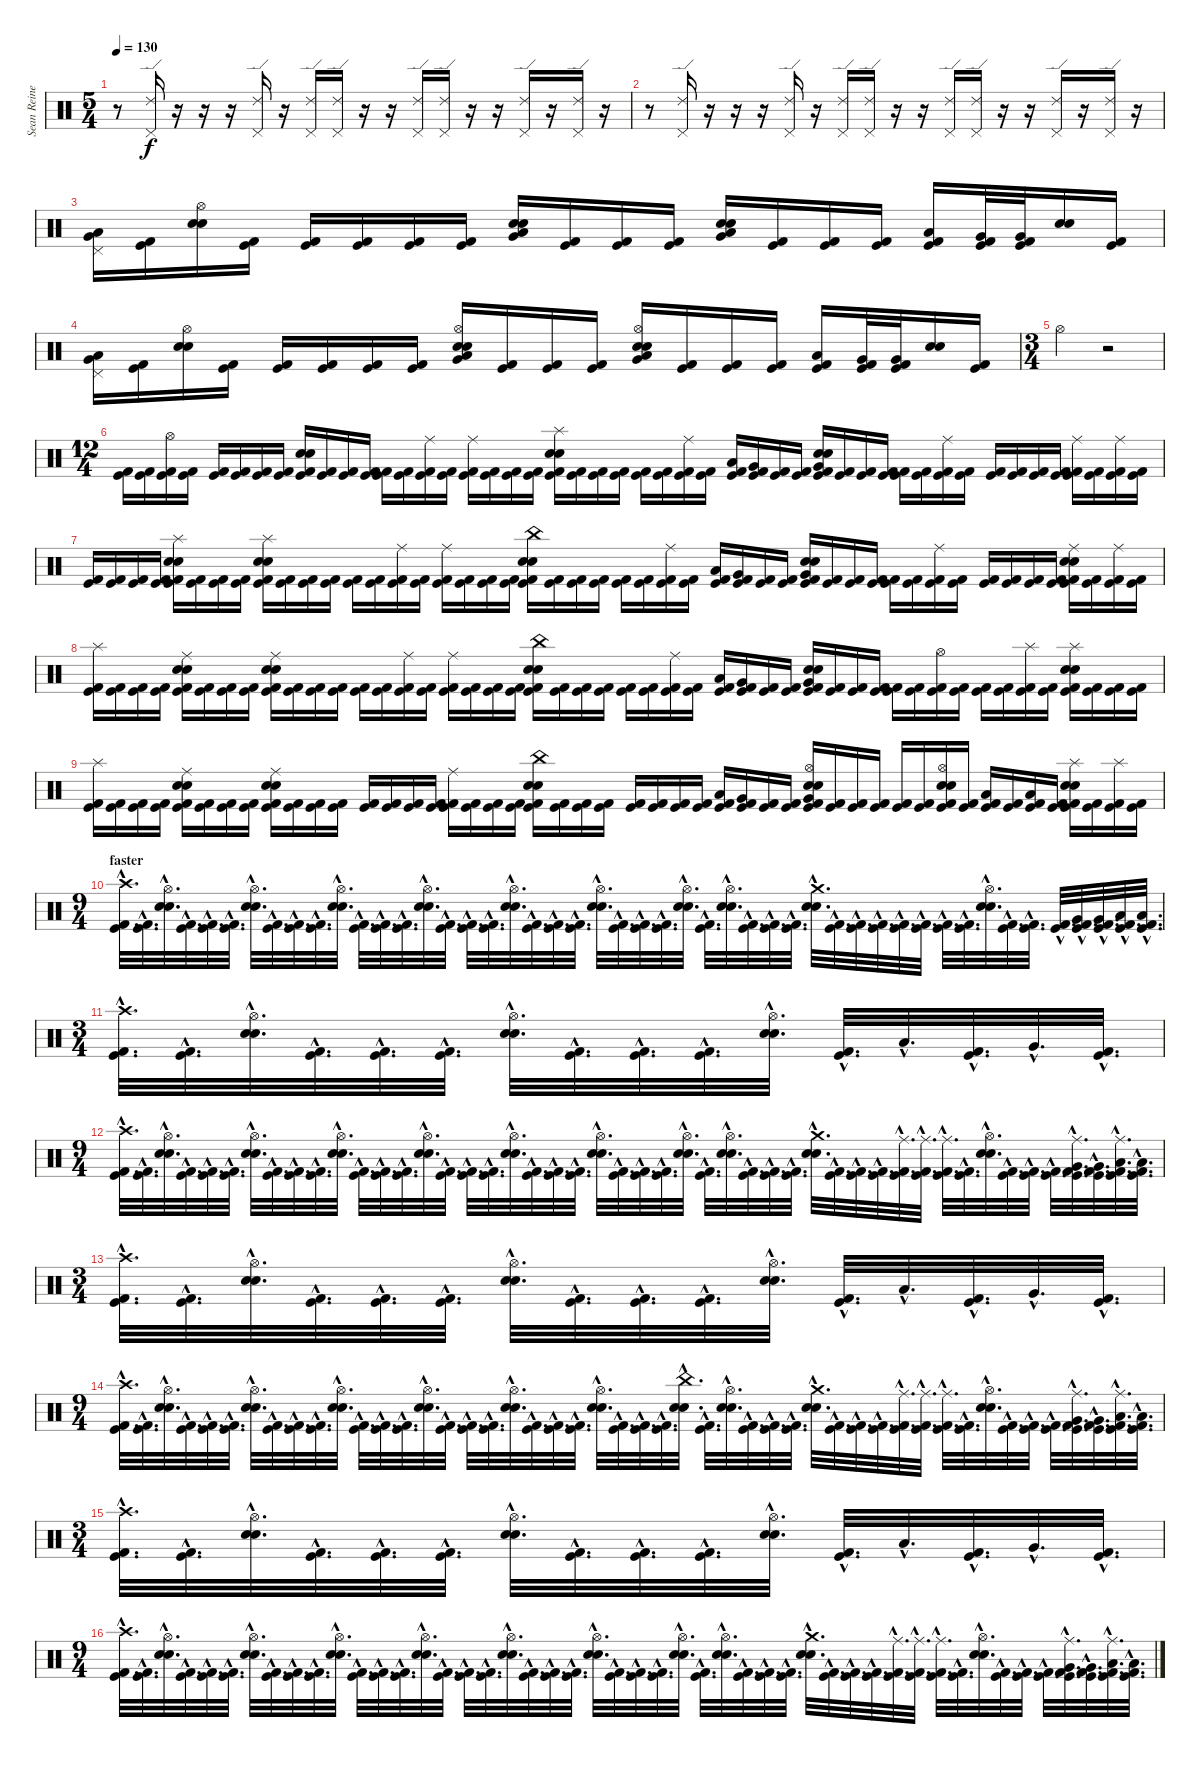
\track ("Sean Reinert" "Sean Reine") {instrument percussion}
\staff {score}
\articulation defaults
\ts (5 4)
\tempo 130
\clef neutral
\ks c
r.8{dy f} ("Ride (edge) 2" "Pedal Hi-Hat (hit)").16 r.16 r.16 r.16 ("Ride (edge) 2" "Pedal Hi-Hat (hit)").16 r.16 ("Ride (edge) 2" "Pedal Hi-Hat (hit)").16 ("Ride (edge) 2" "Pedal Hi-Hat (hit)").16 r.16 r.16 ("Ride (edge) 2" "Pedal Hi-Hat (hit)").16 ("Ride (edge) 2" "Pedal Hi-Hat (hit)").16 r.16 r.16 ("Ride (edge) 2" "Pedal Hi-Hat (hit)").16 r.16 ("Ride (edge) 2" "Pedal Hi-Hat (hit)").16 r.16 |
r.8 ("Ride (edge) 2" "Pedal Hi-Hat (hit)").16 r.16 r.16 r.16 ("Ride (edge) 2" "Pedal Hi-Hat (hit)").16 r.16 ("Ride (edge) 2" "Pedal Hi-Hat (hit)").16 ("Ride (edge) 2" "Pedal Hi-Hat (hit)").16 r.16 r.16 ("Ride (edge) 2" "Pedal Hi-Hat (hit)").16 ("Ride (edge) 2" "Pedal Hi-Hat (hit)").16 r.16 r.16 ("Ride (edge) 2" "Pedal Hi-Hat (hit)").16 r.16 ("Ride (edge) 2" "Pedal Hi-Hat (hit)").16 r.16 |
("Pedal Hi-Hat (hit)" "Low Tom (hit)" "Very Low Tom (hit)").16 ("Kick (hit)" "Kick (hit) 2").16 ("Hi-Hat (open)" "Electric Snare (hit)" "Snare (hit) 2").16 ("Kick (hit)" "Kick (hit) 2").16 ("Kick (hit)" "Kick (hit) 2").16 ("Kick (hit)" "Kick (hit) 2").16 ("Kick (hit)" "Kick (hit) 2").16 ("Kick (hit)" "Kick (hit) 2").16 ("Low Tom (hit)" "Very Low Tom (hit)" "Electric Snare (hit)" "Snare (hit) 2").16 ("Kick (hit)" "Kick (hit) 2").16 ("Kick (hit)" "Kick (hit) 2").16 ("Kick (hit)" "Kick (hit) 2").16 ("Low Tom (hit)" "Very Low Tom (hit)" "Electric Snare (hit)" "Snare (hit) 2").16 ("Kick (hit)" "Kick (hit) 2").16 ("Kick (hit)" "Kick (hit) 2").16 ("Kick (hit)" "Kick (hit) 2").16 ("Low Tom (hit)" "Kick (hit)" "Kick (hit) 2").16 ("Very Low Tom (hit)" "Kick (hit)" "Kick (hit) 2").32 ("Very Low Tom (hit)" "Kick (hit)" "Kick (hit) 2").32 ("Electric Snare (hit)" "Snare (hit) 2").16 ("Kick (hit)" "Kick (hit) 2").16 |
("Pedal Hi-Hat (hit)" "Low Tom (hit)" "Very Low Tom (hit)").16 ("Kick (hit)" "Kick (hit) 2").16 ("Hi-Hat (open)" "Electric Snare (hit)" "Snare (hit) 2").16 ("Kick (hit)" "Kick (hit) 2").16 ("Kick (hit)" "Kick (hit) 2").16 ("Kick (hit)" "Kick (hit) 2").16 ("Kick (hit)" "Kick (hit) 2").16 ("Kick (hit)" "Kick (hit) 2").16 ("Hi-Hat (open)" "Low Tom (hit)" "Very Low Tom (hit)" "Electric Snare (hit)" "Snare (hit) 2").16 ("Kick (hit)" "Kick (hit) 2").16 ("Kick (hit)" "Kick (hit) 2").16 ("Kick (hit)" "Kick (hit) 2").16 ("Hi-Hat (open)" "Low Tom (hit)" "Very Low Tom (hit)" "Electric Snare (hit)" "Snare (hit) 2").16 ("Kick (hit)" "Kick (hit) 2").16 ("Kick (hit)" "Kick (hit) 2").16 ("Kick (hit)" "Kick (hit) 2").16 ("Low Tom (hit)" "Kick (hit)" "Kick (hit) 2").16 ("Very Low Tom (hit)" "Kick (hit)" "Kick (hit) 2").32 ("Very Low Tom (hit)" "Kick (hit)" "Kick (hit) 2").32 ("Electric Snare (hit)" "Snare (hit) 2").16 ("Kick (hit)" "Kick (hit) 2").16 |
\ts (3 4)
"Hi-Hat (open)".4 r.2 |
\ts (12 4)
("Kick (hit) 2" "Kick (hit)").16 ("Kick (hit) 2" "Kick (hit)").16 ("Hi-Hat (open)" "Kick (hit) 2" "Kick (hit)").16 ("Kick (hit) 2" "Kick (hit)").16 ("Kick (hit) 2" "Kick (hit)").16 ("Kick (hit) 2" "Kick (hit)").16 ("Kick (hit) 2" "Kick (hit)").16 ("Kick (hit) 2" "Kick (hit)").16 ("Snare (hit) 2" "Electric Snare (hit)" "Kick (hit) 2" "Kick (hit)").16 ("Kick (hit) 2" "Kick (hit)").16 ("Kick (hit) 2" "Kick (hit)").16 ("Kick (hit) 2" "Kick (hit)").16 ("Kick (hit) 2" "Kick (hit)").16 ("Kick (hit) 2" "Kick (hit)").16 ("Ride (middle)" "Kick (hit) 2" "Kick (hit)").16 ("Kick (hit) 2" "Kick (hit)").16 ("Ride (middle)" "Kick (hit) 2" "Kick (hit)").16 ("Kick (hit) 2" "Kick (hit)").16 ("Kick (hit) 2" "Kick (hit)").16 ("Kick (hit) 2" "Kick (hit)").16 ("Splash (hit)" "Snare (hit) 2" "Electric Snare (hit)" "Kick (hit) 2" "Kick (hit)").16 ("Kick (hit) 2" "Kick (hit)").16 ("Kick (hit) 2" "Kick (hit)").16 ("Kick (hit) 2" "Kick (hit)").16 ("Kick (hit) 2" "Kick (hit)").16 ("Kick (hit) 2" "Kick (hit)").16 ("Ride (middle)" "Kick (hit) 2" "Kick (hit)").16 ("Kick (hit) 2" "Kick (hit)").16 ("Low Tom (hit)" "Kick (hit) 2" "Kick (hit)").16 ("Very Low Tom (hit)" "Kick (hit) 2" "Kick (hit)").16 ("Kick (hit) 2" "Kick (hit)").16 ("Kick (hit) 2" "Kick (hit)").16 ("Very Low Tom (hit)" "Snare (hit) 2" "Electric Snare (hit)" "Kick (hit) 2" "Kick (hit)").16 ("Kick (hit) 2" "Kick (hit)").16 ("Kick (hit) 2" "Kick (hit)").16 ("Kick (hit) 2" "Kick (hit)").16 ("Kick (hit) 2" "Kick (hit)").16 ("Kick (hit) 2" "Kick (hit)").16 ("Ride (middle)" "Kick (hit) 2" "Kick (hit)").16 ("Kick (hit) 2" "Kick (hit)").16 ("Kick (hit) 2" "Kick (hit)").16 ("Kick (hit) 2" "Kick (hit)").16 ("Kick (hit) 2" "Kick (hit)").16 ("Kick (hit) 2" "Kick (hit)").16 ("Ride (middle)" "Kick (hit) 2" "Kick (hit)").16 ("Kick (hit) 2" "Kick (hit)").16 ("Ride (middle)" "Kick (hit) 2" "Kick (hit)").16 ("Kick (hit) 2" "Kick (hit)").16 |
("Kick (hit) 2" "Kick (hit)").16 ("Kick (hit) 2" "Kick (hit)").16 ("Kick (hit) 2" "Kick (hit)").16 ("Kick (hit) 2" "Kick (hit)").16 ("Splash (hit)" "Snare (hit) 2" "Electric Snare (hit)" "Kick (hit) 2" "Kick (hit)").16 ("Kick (hit) 2" "Kick (hit)").16 ("Kick (hit) 2" "Kick (hit)").16 ("Kick (hit) 2" "Kick (hit)").16 ("Splash (hit)" "Snare (hit) 2" "Electric Snare (hit)" "Kick (hit) 2" "Kick (hit)").16 ("Kick (hit) 2" "Kick (hit)").16 ("Kick (hit) 2" "Kick (hit)").16 ("Kick (hit) 2" "Kick (hit)").16 ("Kick (hit) 2" "Kick (hit)").16 ("Kick (hit) 2" "Kick (hit)").16 ("Ride (middle)" "Kick (hit) 2" "Kick (hit)").16 ("Kick (hit) 2" "Kick (hit)").16 ("Ride (middle)" "Kick (hit) 2" "Kick (hit)").16 ("Kick (hit) 2" "Kick (hit)").16 ("Kick (hit) 2" "Kick (hit)").16 ("Kick (hit) 2" "Kick (hit)").16 ("China (hit)" "Snare (hit) 2" "Electric Snare (hit)" "Kick (hit) 2" "Kick (hit)").16 ("Kick (hit) 2" "Kick (hit)").16 ("Kick (hit) 2" "Kick (hit)").16 ("Kick (hit) 2" "Kick (hit)").16 ("Kick (hit) 2" "Kick (hit)").16 ("Kick (hit) 2" "Kick (hit)").16 ("Ride (middle)" "Kick (hit) 2" "Kick (hit)").16 ("Kick (hit) 2" "Kick (hit)").16 ("Low Tom (hit)" "Kick (hit) 2" "Kick (hit)").16 ("Very Low Tom (hit)" "Kick (hit) 2" "Kick (hit)").16 ("Kick (hit) 2" "Kick (hit)").16 ("Kick (hit) 2" "Kick (hit)").16 ("Very Low Tom (hit)" "Snare (hit) 2" "Electric Snare (hit)" "Kick (hit) 2" "Kick (hit)").16 ("Kick (hit) 2" "Kick (hit)").16 ("Kick (hit) 2" "Kick (hit)").16 ("Kick (hit) 2" "Kick (hit)").16 ("Kick (hit) 2" "Kick (hit)").16 ("Kick (hit) 2" "Kick (hit)").16 ("Ride (middle)" "Kick (hit) 2" "Kick (hit)").16 ("Kick (hit) 2" "Kick (hit)").16 ("Kick (hit) 2" "Kick (hit)").16 ("Kick (hit) 2" "Kick (hit)").16 ("Kick (hit) 2" "Kick (hit)").16 ("Kick (hit) 2" "Kick (hit)").16 ("Ride (middle)" "Electric Snare (hit)" "Snare (hit) 2" "Kick (hit) 2" "Kick (hit)").16 ("Kick (hit) 2" "Kick (hit)").16 ("Ride (middle)" "Kick (hit) 2" "Kick (hit)").16 ("Kick (hit) 2" "Kick (hit)").16 |
("Splash (hit)" "Kick (hit) 2" "Kick (hit)").16 ("Kick (hit) 2" "Kick (hit)").16 ("Kick (hit) 2" "Kick (hit)").16 ("Kick (hit) 2" "Kick (hit)").16 ("Ride (middle)" "Snare (hit) 2" "Electric Snare (hit)" "Kick (hit) 2" "Kick (hit)").16 ("Kick (hit) 2" "Kick (hit)").16 ("Kick (hit) 2" "Kick (hit)").16 ("Kick (hit) 2" "Kick (hit)").16 ("Ride (middle)" "Snare (hit) 2" "Electric Snare (hit)" "Kick (hit) 2" "Kick (hit)").16 ("Kick (hit) 2" "Kick (hit)").16 ("Kick (hit) 2" "Kick (hit)").16 ("Kick (hit) 2" "Kick (hit)").16 ("Kick (hit) 2" "Kick (hit)").16 ("Kick (hit) 2" "Kick (hit)").16 ("Ride (middle)" "Kick (hit) 2" "Kick (hit)").16 ("Kick (hit) 2" "Kick (hit)").16 ("Ride (middle)" "Kick (hit) 2" "Kick (hit)").16 ("Kick (hit) 2" "Kick (hit)").16 ("Kick (hit) 2" "Kick (hit)").16 ("Kick (hit) 2" "Kick (hit)").16 ("China (hit)" "Snare (hit) 2" "Electric Snare (hit)" "Kick (hit) 2" "Kick (hit)").16 ("Kick (hit) 2" "Kick (hit)").16 ("Kick (hit) 2" "Kick (hit)").16 ("Kick (hit) 2" "Kick (hit)").16 ("Kick (hit) 2" "Kick (hit)").16 ("Kick (hit) 2" "Kick (hit)").16 ("Ride (middle)" "Kick (hit) 2" "Kick (hit)").16 ("Kick (hit) 2" "Kick (hit)").16 ("Low Tom (hit)" "Kick (hit) 2" "Kick (hit)").16 ("Very Low Tom (hit)" "Kick (hit) 2" "Kick (hit)").16 ("Kick (hit) 2" "Kick (hit)").16 ("Kick (hit) 2" "Kick (hit)").16 ("Very Low Tom (hit)" "Snare (hit) 2" "Electric Snare (hit)" "Kick (hit) 2" "Kick (hit)").16 ("Kick (hit) 2" "Kick (hit)").16 ("Kick (hit) 2" "Kick (hit)").16 ("Kick (hit) 2" "Kick (hit)").16 ("Kick (hit) 2" "Kick (hit)").16 ("Kick (hit) 2" "Kick (hit)").16 ("Hi-Hat (open)" "Kick (hit) 2" "Kick (hit)").16 ("Kick (hit) 2" "Kick (hit)").16 ("Kick (hit) 2" "Kick (hit)").16 ("Kick (hit) 2" "Kick (hit)").16 ("Splash (hit)" "Kick (hit) 2" "Kick (hit)").16 ("Kick (hit) 2" "Kick (hit)").16 ("Splash (hit)" "Electric Snare (hit)" "Snare (hit) 2" "Kick (hit) 2" "Kick (hit)").16 ("Kick (hit) 2" "Kick (hit)").16 ("Kick (hit) 2" "Kick (hit)").16 ("Kick (hit) 2" "Kick (hit)").16 |
("Splash (hit)" "Kick (hit) 2" "Kick (hit)").16 ("Kick (hit) 2" "Kick (hit)").16 ("Kick (hit) 2" "Kick (hit)").16 ("Kick (hit) 2" "Kick (hit)").16 ("Ride (middle)" "Snare (hit) 2" "Electric Snare (hit)" "Kick (hit) 2" "Kick (hit)").16 ("Kick (hit) 2" "Kick (hit)").16 ("Kick (hit) 2" "Kick (hit)").16 ("Kick (hit) 2" "Kick (hit)").16 ("Ride (middle)" "Snare (hit) 2" "Electric Snare (hit)" "Kick (hit) 2" "Kick (hit)").16 ("Kick (hit) 2" "Kick (hit)").16 ("Kick (hit) 2" "Kick (hit)").16 ("Kick (hit) 2" "Kick (hit)").16 ("Kick (hit) 2" "Kick (hit)").16 ("Kick (hit) 2" "Kick (hit)").16 ("Kick (hit) 2" "Kick (hit)").16 ("Kick (hit) 2" "Kick (hit)").16 ("Ride (middle)" "Kick (hit) 2" "Kick (hit)").16 ("Kick (hit) 2" "Kick (hit)").16 ("Kick (hit) 2" "Kick (hit)").16 ("Kick (hit) 2" "Kick (hit)").16 ("China (hit)" "Snare (hit) 2" "Electric Snare (hit)" "Kick (hit) 2" "Kick (hit)").16 ("Kick (hit) 2" "Kick (hit)").16 ("Kick (hit) 2" "Kick (hit)").16 ("Kick (hit) 2" "Kick (hit)").16 ("Kick (hit) 2" "Kick (hit)").16 ("Kick (hit) 2" "Kick (hit)").16 ("Kick (hit) 2" "Kick (hit)").16 ("Kick (hit) 2" "Kick (hit)").16 ("Low Tom (hit)" "Kick (hit) 2" "Kick (hit)").16 ("Very Low Tom (hit)" "Kick (hit) 2" "Kick (hit)").16 ("Kick (hit) 2" "Kick (hit)").16 ("Kick (hit) 2" "Kick (hit)").16 ("Hi-Hat (open)" "Very Low Tom (hit)" "Snare (hit) 2" "Electric Snare (hit)" "Kick (hit) 2" "Kick (hit)").16 ("Kick (hit) 2" "Kick (hit)").16 ("Kick (hit) 2" "Kick (hit)").16 ("Kick (hit) 2" "Kick (hit)").16 ("Kick (hit) 2" "Kick (hit)").16 ("Kick (hit) 2" "Kick (hit)").16 ("Hi-Hat (open)" "Electric Snare (hit)" "Snare (hit) 2" "Kick (hit) 2" "Kick (hit)").16 ("Kick (hit) 2" "Kick (hit)").16 ("Low Tom (hit)" "Kick (hit) 2" "Kick (hit)").16 ("Kick (hit) 2" "Kick (hit)").16 ("Low Tom (hit)" "Kick (hit) 2" "Kick (hit)").16 ("Kick (hit) 2" "Kick (hit)").16 ("Splash (hit)" "Electric Snare (hit)" "Snare (hit) 2" "Kick (hit) 2" "Kick (hit)").16 ("Kick (hit) 2" "Kick (hit)").16 ("Splash (hit)" "Kick (hit) 2" "Kick (hit)").16 ("Kick (hit) 2" "Kick (hit)").16 |
\ts (9 4)
\section ("" "faster")
("Crash high (hit)"{hac} "Kick (hit) 2"{hac} "Kick (hit)"{hac}).32{d} ("Kick (hit) 2"{hac} "Kick (hit)"{hac}).32{d} ("Hi-Hat (open)"{hac} "Electric Snare (hit)"{hac} "Snare (hit) 2"{hac}).32{d} ("Kick (hit) 2"{hac} "Kick (hit)"{hac}).32{d} ("Kick (hit) 2"{hac} "Kick (hit)"{hac}).32{d} ("Kick (hit) 2"{hac} "Kick (hit)"{hac}).32{d} ("Hi-Hat (open)"{hac} "Electric Snare (hit)"{hac} "Snare (hit) 2"{hac}).32{d} ("Kick (hit) 2"{hac} "Kick (hit)"{hac}).32{d} ("Kick (hit) 2"{hac} "Kick (hit)"{hac}).32{d} ("Kick (hit) 2"{hac} "Kick (hit)"{hac}).32{d} ("Hi-Hat (open)"{hac} "Electric Snare (hit)"{hac} "Snare (hit) 2"{hac}).32{d} ("Kick (hit) 2"{hac} "Kick (hit)"{hac}).32{d} ("Kick (hit) 2"{hac} "Kick (hit)"{hac}).32{d} ("Kick (hit) 2"{hac} "Kick (hit)"{hac}).32{d} ("Hi-Hat (open)"{hac} "Electric Snare (hit)"{hac} "Snare (hit) 2"{hac}).32{d} ("Kick (hit) 2"{hac} "Kick (hit)"{hac}).32{d} ("Kick (hit) 2"{hac} "Kick (hit)"{hac}).32{d} ("Kick (hit) 2"{hac} "Kick (hit)"{hac}).32{d} ("Hi-Hat (open)"{hac} "Electric Snare (hit)"{hac} "Snare (hit) 2"{hac}).32{d} ("Kick (hit) 2"{hac} "Kick (hit)"{hac}).32{d} ("Kick (hit) 2"{hac} "Kick (hit)"{hac}).32{d} ("Kick (hit) 2"{hac} "Kick (hit)"{hac}).32{d} ("Hi-Hat (open)"{hac} "Electric Snare (hit)"{hac} "Snare (hit) 2"{hac}).32{d} ("Kick (hit) 2"{hac} "Kick (hit)"{hac}).32{d} ("Kick (hit) 2"{hac} "Kick (hit)"{hac}).32{d} ("Kick (hit) 2"{hac} "Kick (hit)"{hac}).32{d} ("Hi-Hat (open)"{hac} "Electric Snare (hit)"{hac} "Snare (hit) 2"{hac}).32{d} ("Kick (hit) 2"{hac} "Kick (hit)"{hac}).32{d} ("Hi-Hat (open)"{hac} "Electric Snare (hit)"{hac} "Snare (hit) 2"{hac}).32{d} ("Kick (hit) 2"{hac} "Kick (hit)"{hac}).32{d} ("Kick (hit) 2"{hac} "Kick (hit)"{hac}).32{d} ("Kick (hit) 2"{hac} "Kick (hit)"{hac}).32{d} ("Crash medium (hit)"{hac} "Electric Snare (hit)"{hac} "Snare (hit) 2"{hac}).32{d} ("Kick (hit) 2"{hac} "Kick (hit)"{hac}).32{d} ("Kick (hit) 2"{hac} "Kick (hit)"{hac}).32{d} ("Kick (hit) 2"{hac} "Kick (hit)"{hac}).32{d} ("Kick (hit) 2"{hac} "Kick (hit)"{hac}).32{d} ("Kick (hit) 2"{hac} "Kick (hit)"{hac}).32{d} ("Kick (hit) 2"{hac} "Kick (hit)"{hac}).32{d} ("Kick (hit) 2"{hac} "Kick (hit)"{hac}).32{d} ("Hi-Hat (open)"{hac} "Electric Snare (hit)"{hac} "Snare (hit) 2"{hac}).32{d} ("Kick (hit) 2"{hac} "Kick (hit)"{hac}).32{d} ("Kick (hit) 2"{hac} "Kick (hit)"{hac}).32{d} ("Kick (hit) 2"{hac} "Kick (hit)"{hac}).32{d} ("Very Low Tom (hit)"{hac} "Kick (hit) 2"{hac} "Kick (hit)"{hac}).32{d} ("Very Low Tom (hit)"{hac} "Kick (hit) 2"{hac} "Kick (hit)"{hac}).32{d} ("Low Floor Tom (hit)"{hac} "Kick (hit) 2"{hac} "Kick (hit)"{hac}).32{d} ("Low Floor Tom (hit)"{hac} "Kick (hit) 2"{hac} "Kick (hit)"{hac}).32{d} |
\ts (3 4)
("Crash high (hit)"{hac} "Kick (hit) 2"{hac} "Kick (hit)"{hac}).32{d} ("Kick (hit) 2"{hac} "Kick (hit)"{hac}).32{d} ("Hi-Hat (open)"{hac} "Electric Snare (hit)"{hac} "Snare (hit) 2"{hac}).32{d} ("Kick (hit) 2"{hac} "Kick (hit)"{hac}).32{d} ("Kick (hit) 2"{hac} "Kick (hit)"{hac}).32{d} ("Kick (hit) 2"{hac} "Kick (hit)"{hac}).32{d} ("Hi-Hat (open)"{hac} "Electric Snare (hit)"{hac} "Snare (hit) 2"{hac}).32{d} ("Kick (hit) 2"{hac} "Kick (hit)"{hac}).32{d} ("Kick (hit) 2"{hac} "Kick (hit)"{hac}).32{d} ("Kick (hit) 2"{hac} "Kick (hit)"{hac}).32{d} ("Hi-Hat (open)"{hac} "Electric Snare (hit)"{hac} "Snare (hit) 2"{hac}).32{d} ("Kick (hit) 2"{hac} "Kick (hit)"{hac}).32{d} "Low Tom (hit)"{hac}.32{d} ("Kick (hit) 2"{hac} "Kick (hit)"{hac}).32{d} "Very Low Tom (hit)"{hac}.32{d} ("Kick (hit) 2"{hac} "Kick (hit)"{hac}).32{d} |
\ts (9 4)
("Crash high (hit)"{hac} "Kick (hit) 2"{hac} "Kick (hit)"{hac}).32{d} ("Kick (hit) 2"{hac} "Kick (hit)"{hac}).32{d} ("Hi-Hat (open)"{hac} "Electric Snare (hit)"{hac} "Snare (hit) 2"{hac}).32{d} ("Kick (hit) 2"{hac} "Kick (hit)"{hac}).32{d} ("Kick (hit) 2"{hac} "Kick (hit)"{hac}).32{d} ("Kick (hit) 2"{hac} "Kick (hit)"{hac}).32{d} ("Hi-Hat (open)"{hac} "Electric Snare (hit)"{hac} "Snare (hit) 2"{hac}).32{d} ("Kick (hit) 2"{hac} "Kick (hit)"{hac}).32{d} ("Kick (hit) 2"{hac} "Kick (hit)"{hac}).32{d} ("Kick (hit) 2"{hac} "Kick (hit)"{hac}).32{d} ("Hi-Hat (open)"{hac} "Electric Snare (hit)"{hac} "Snare (hit) 2"{hac}).32{d} ("Kick (hit) 2"{hac} "Kick (hit)"{hac}).32{d} ("Kick (hit) 2"{hac} "Kick (hit)"{hac}).32{d} ("Kick (hit) 2"{hac} "Kick (hit)"{hac}).32{d} ("Hi-Hat (open)"{hac} "Electric Snare (hit)"{hac} "Snare (hit) 2"{hac}).32{d} ("Kick (hit) 2"{hac} "Kick (hit)"{hac}).32{d} ("Kick (hit) 2"{hac} "Kick (hit)"{hac}).32{d} ("Kick (hit) 2"{hac} "Kick (hit)"{hac}).32{d} ("Hi-Hat (open)"{hac} "Electric Snare (hit)"{hac} "Snare (hit) 2"{hac}).32{d} ("Kick (hit) 2"{hac} "Kick (hit)"{hac}).32{d} ("Kick (hit) 2"{hac} "Kick (hit)"{hac}).32{d} ("Kick (hit) 2"{hac} "Kick (hit)"{hac}).32{d} ("Hi-Hat (open)"{hac} "Electric Snare (hit)"{hac} "Snare (hit) 2"{hac}).32{d} ("Kick (hit) 2"{hac} "Kick (hit)"{hac}).32{d} ("Kick (hit) 2"{hac} "Kick (hit)"{hac}).32{d} ("Kick (hit) 2"{hac} "Kick (hit)"{hac}).32{d} ("Hi-Hat (open)"{hac} "Electric Snare (hit)"{hac} "Snare (hit) 2"{hac}).32{d} ("Kick (hit) 2"{hac} "Kick (hit)"{hac}).32{d} ("Hi-Hat (open)"{hac} "Electric Snare (hit)"{hac} "Snare (hit) 2"{hac}).32{d} ("Kick (hit) 2"{hac} "Kick (hit)"{hac}).32{d} ("Kick (hit) 2"{hac} "Kick (hit)"{hac}).32{d} ("Kick (hit) 2"{hac} "Kick (hit)"{hac}).32{d} ("Crash medium (hit)"{hac} "Electric Snare (hit)"{hac} "Snare (hit) 2"{hac}).32{d} ("Kick (hit) 2"{hac} "Kick (hit)"{hac}).32{d} ("Kick (hit) 2"{hac} "Kick (hit)"{hac}).32{d} ("Kick (hit) 2"{hac} "Kick (hit)"{hac}).32{d} ("Ride (middle)"{hac} "Kick (hit) 2"{hac} "Kick (hit)"{hac}).32{d} ("Ride (middle)"{hac} "Kick (hit) 2"{hac} "Kick (hit)"{hac}).32{d} ("Ride (middle)"{hac} "Kick (hit) 2"{hac} "Kick (hit)"{hac}).32{d} ("Kick (hit) 2"{hac} "Kick (hit)"{hac}).32{d} ("Hi-Hat (open)"{hac} "Electric Snare (hit)"{hac} "Snare (hit) 2"{hac}).32{d} ("Kick (hit) 2"{hac} "Kick (hit)"{hac}).32{d} ("Kick (hit) 2"{hac} "Kick (hit)"{hac}).32{d} ("Kick (hit) 2"{hac} "Kick (hit)"{hac}).32{d} ("Ride (middle)"{hac} "Very Low Tom (hit)"{hac} "Kick (hit) 2"{hac} "Kick (hit)"{hac}).32{d} ("Very Low Tom (hit)"{hac} "Kick (hit) 2"{hac} "Kick (hit)"{hac}).32{d} ("Ride (middle)"{hac} "Low Floor Tom (hit)"{hac} "Kick (hit) 2"{hac} "Kick (hit)"{hac}).32{d} ("Low Floor Tom (hit)"{hac} "Kick (hit) 2"{hac} "Kick (hit)"{hac}).32{d} |
\ts (3 4)
("Crash high (hit)"{hac} "Kick (hit) 2"{hac} "Kick (hit)"{hac}).32{d} ("Kick (hit) 2"{hac} "Kick (hit)"{hac}).32{d} ("Hi-Hat (open)"{hac} "Electric Snare (hit)"{hac} "Snare (hit) 2"{hac}).32{d} ("Kick (hit) 2"{hac} "Kick (hit)"{hac}).32{d} ("Kick (hit) 2"{hac} "Kick (hit)"{hac}).32{d} ("Kick (hit) 2"{hac} "Kick (hit)"{hac}).32{d} ("Hi-Hat (open)"{hac} "Electric Snare (hit)"{hac} "Snare (hit) 2"{hac}).32{d} ("Kick (hit) 2"{hac} "Kick (hit)"{hac}).32{d} ("Kick (hit) 2"{hac} "Kick (hit)"{hac}).32{d} ("Kick (hit) 2"{hac} "Kick (hit)"{hac}).32{d} ("Hi-Hat (open)"{hac} "Electric Snare (hit)"{hac} "Snare (hit) 2"{hac}).32{d} ("Kick (hit) 2"{hac} "Kick (hit)"{hac}).32{d} "Low Tom (hit)"{hac}.32{d} ("Kick (hit) 2"{hac} "Kick (hit)"{hac}).32{d} "Very Low Tom (hit)"{hac}.32{d} ("Kick (hit) 2"{hac} "Kick (hit)"{hac}).32{d} |
\ts (9 4)
("Crash high (hit)"{hac} "Kick (hit) 2"{hac} "Kick (hit)"{hac}).32{d} ("Kick (hit) 2"{hac} "Kick (hit)"{hac}).32{d} ("Hi-Hat (open)"{hac} "Electric Snare (hit)"{hac} "Snare (hit) 2"{hac}).32{d} ("Kick (hit) 2"{hac} "Kick (hit)"{hac}).32{d} ("Kick (hit) 2"{hac} "Kick (hit)"{hac}).32{d} ("Kick (hit) 2"{hac} "Kick (hit)"{hac}).32{d} ("Hi-Hat (open)"{hac} "Electric Snare (hit)"{hac} "Snare (hit) 2"{hac}).32{d} ("Kick (hit) 2"{hac} "Kick (hit)"{hac}).32{d} ("Kick (hit) 2"{hac} "Kick (hit)"{hac}).32{d} ("Kick (hit) 2"{hac} "Kick (hit)"{hac}).32{d} ("Hi-Hat (open)"{hac} "Electric Snare (hit)"{hac} "Snare (hit) 2"{hac}).32{d} ("Kick (hit) 2"{hac} "Kick (hit)"{hac}).32{d} ("Kick (hit) 2"{hac} "Kick (hit)"{hac}).32{d} ("Kick (hit) 2"{hac} "Kick (hit)"{hac}).32{d} ("Hi-Hat (open)"{hac} "Electric Snare (hit)"{hac} "Snare (hit) 2"{hac}).32{d} ("Kick (hit) 2"{hac} "Kick (hit)"{hac}).32{d} ("Kick (hit) 2"{hac} "Kick (hit)"{hac}).32{d} ("Kick (hit) 2"{hac} "Kick (hit)"{hac}).32{d} ("Hi-Hat (open)"{hac} "Electric Snare (hit)"{hac} "Snare (hit) 2"{hac}).32{d} ("Kick (hit) 2"{hac} "Kick (hit)"{hac}).32{d} ("Kick (hit) 2"{hac} "Kick (hit)"{hac}).32{d} ("Kick (hit) 2"{hac} "Kick (hit)"{hac}).32{d} ("Hi-Hat (open)"{hac} "Electric Snare (hit)"{hac} "Snare (hit) 2"{hac}).32{d} ("Kick (hit) 2"{hac} "Kick (hit)"{hac}).32{d} ("Kick (hit) 2"{hac} "Kick (hit)"{hac}).32{d} ("Kick (hit) 2"{hac} "Kick (hit)"{hac}).32{d} ("China (hit)"{hac} "Electric Snare (hit)"{hac} "Snare (hit) 2"{hac}).32{d} ("Kick (hit) 2"{hac} "Kick (hit)"{hac}).32{d} ("Hi-Hat (open)"{hac} "Electric Snare (hit)"{hac} "Snare (hit) 2"{hac}).32{d} ("Kick (hit) 2"{hac} "Kick (hit)"{hac}).32{d} ("Kick (hit) 2"{hac} "Kick (hit)"{hac}).32{d} ("Kick (hit) 2"{hac} "Kick (hit)"{hac}).32{d} ("Crash medium (hit)"{hac} "Electric Snare (hit)"{hac} "Snare (hit) 2"{hac}).32{d} ("Kick (hit) 2"{hac} "Kick (hit)"{hac}).32{d} ("Kick (hit) 2"{hac} "Kick (hit)"{hac}).32{d} ("Kick (hit) 2"{hac} "Kick (hit)"{hac}).32{d} ("Ride (middle)"{hac} "Kick (hit) 2"{hac} "Kick (hit)"{hac}).32{d} ("Ride (middle)"{hac} "Kick (hit) 2"{hac} "Kick (hit)"{hac}).32{d} ("Ride (middle)"{hac} "Kick (hit) 2"{hac} "Kick (hit)"{hac}).32{d} ("Kick (hit) 2"{hac} "Kick (hit)"{hac}).32{d} ("Hi-Hat (open)"{hac} "Electric Snare (hit)"{hac} "Snare (hit) 2"{hac}).32{d} ("Kick (hit) 2"{hac} "Kick (hit)"{hac}).32{d} ("Kick (hit) 2"{hac} "Kick (hit)"{hac}).32{d} ("Kick (hit) 2"{hac} "Kick (hit)"{hac}).32{d} ("Ride (middle)"{hac} "Very Low Tom (hit)"{hac} "Kick (hit) 2"{hac} "Kick (hit)"{hac}).32{d} ("Very Low Tom (hit)"{hac} "Kick (hit) 2"{hac} "Kick (hit)"{hac}).32{d} ("Ride (middle)"{hac} "Low Floor Tom (hit)"{hac} "Kick (hit) 2"{hac} "Kick (hit)"{hac}).32{d} ("Low Floor Tom (hit)"{hac} "Kick (hit) 2"{hac} "Kick (hit)"{hac}).32{d} |
\ts (3 4)
("Crash high (hit)"{hac} "Kick (hit) 2"{hac} "Kick (hit)"{hac}).32{d} ("Kick (hit) 2"{hac} "Kick (hit)"{hac}).32{d} ("Hi-Hat (open)"{hac} "Electric Snare (hit)"{hac} "Snare (hit) 2"{hac}).32{d} ("Kick (hit) 2"{hac} "Kick (hit)"{hac}).32{d} ("Kick (hit) 2"{hac} "Kick (hit)"{hac}).32{d} ("Kick (hit) 2"{hac} "Kick (hit)"{hac}).32{d} ("Hi-Hat (open)"{hac} "Electric Snare (hit)"{hac} "Snare (hit) 2"{hac}).32{d} ("Kick (hit) 2"{hac} "Kick (hit)"{hac}).32{d} ("Kick (hit) 2"{hac} "Kick (hit)"{hac}).32{d} ("Kick (hit) 2"{hac} "Kick (hit)"{hac}).32{d} ("Hi-Hat (open)"{hac} "Electric Snare (hit)"{hac} "Snare (hit) 2"{hac}).32{d} ("Kick (hit) 2"{hac} "Kick (hit)"{hac}).32{d} "Low Tom (hit)"{hac}.32{d} ("Kick (hit) 2"{hac} "Kick (hit)"{hac}).32{d} "Very Low Tom (hit)"{hac}.32{d} ("Kick (hit) 2"{hac} "Kick (hit)"{hac}).32{d} |
\ts (9 4)
("Crash high (hit)"{hac} "Kick (hit) 2"{hac} "Kick (hit)"{hac}).32{d} ("Kick (hit) 2"{hac} "Kick (hit)"{hac}).32{d} ("Hi-Hat (open)"{hac} "Electric Snare (hit)"{hac} "Snare (hit) 2"{hac}).32{d} ("Kick (hit) 2"{hac} "Kick (hit)"{hac}).32{d} ("Kick (hit) 2"{hac} "Kick (hit)"{hac}).32{d} ("Kick (hit) 2"{hac} "Kick (hit)"{hac}).32{d} ("Hi-Hat (open)"{hac} "Electric Snare (hit)"{hac} "Snare (hit) 2"{hac}).32{d} ("Kick (hit) 2"{hac} "Kick (hit)"{hac}).32{d} ("Kick (hit) 2"{hac} "Kick (hit)"{hac}).32{d} ("Kick (hit) 2"{hac} "Kick (hit)"{hac}).32{d} ("Hi-Hat (open)"{hac} "Electric Snare (hit)"{hac} "Snare (hit) 2"{hac}).32{d} ("Kick (hit) 2"{hac} "Kick (hit)"{hac}).32{d} ("Kick (hit) 2"{hac} "Kick (hit)"{hac}).32{d} ("Kick (hit) 2"{hac} "Kick (hit)"{hac}).32{d} ("Hi-Hat (open)"{hac} "Electric Snare (hit)"{hac} "Snare (hit) 2"{hac}).32{d} ("Kick (hit) 2"{hac} "Kick (hit)"{hac}).32{d} ("Kick (hit) 2"{hac} "Kick (hit)"{hac}).32{d} ("Kick (hit) 2"{hac} "Kick (hit)"{hac}).32{d} ("Hi-Hat (open)"{hac} "Electric Snare (hit)"{hac} "Snare (hit) 2"{hac}).32{d} ("Kick (hit) 2"{hac} "Kick (hit)"{hac}).32{d} ("Kick (hit) 2"{hac} "Kick (hit)"{hac}).32{d} ("Kick (hit) 2"{hac} "Kick (hit)"{hac}).32{d} ("Hi-Hat (open)"{hac} "Electric Snare (hit)"{hac} "Snare (hit) 2"{hac}).32{d} ("Kick (hit) 2"{hac} "Kick (hit)"{hac}).32{d} ("Kick (hit) 2"{hac} "Kick (hit)"{hac}).32{d} ("Kick (hit) 2"{hac} "Kick (hit)"{hac}).32{d} ("Hi-Hat (open)"{hac} "Electric Snare (hit)"{hac} "Snare (hit) 2"{hac}).32{d} ("Kick (hit) 2"{hac} "Kick (hit)"{hac}).32{d} ("Hi-Hat (open)"{hac} "Electric Snare (hit)"{hac} "Snare (hit) 2"{hac}).32{d} ("Kick (hit) 2"{hac} "Kick (hit)"{hac}).32{d} ("Kick (hit) 2"{hac} "Kick (hit)"{hac}).32{d} ("Kick (hit) 2"{hac} "Kick (hit)"{hac}).32{d} ("Crash medium (hit)"{hac} "Electric Snare (hit)"{hac} "Snare (hit) 2"{hac}).32{d} ("Kick (hit) 2"{hac} "Kick (hit)"{hac}).32{d} ("Kick (hit) 2"{hac} "Kick (hit)"{hac}).32{d} ("Kick (hit) 2"{hac} "Kick (hit)"{hac}).32{d} ("Ride (middle)"{hac} "Kick (hit) 2"{hac} "Kick (hit)"{hac}).32{d} ("Ride (middle)"{hac} "Kick (hit) 2"{hac} "Kick (hit)"{hac}).32{d} ("Ride (middle)"{hac} "Kick (hit) 2"{hac} "Kick (hit)"{hac}).32{d} ("Kick (hit) 2"{hac} "Kick (hit)"{hac}).32{d} ("Hi-Hat (open)"{hac} "Electric Snare (hit)"{hac} "Snare (hit) 2"{hac}).32{d} ("Kick (hit) 2"{hac} "Kick (hit)"{hac}).32{d} ("Kick (hit) 2"{hac} "Kick (hit)"{hac}).32{d} ("Kick (hit) 2"{hac} "Kick (hit)"{hac}).32{d} ("Ride (middle)"{hac} "Very Low Tom (hit)"{hac} "Kick (hit) 2"{hac} "Kick (hit)"{hac}).32{d} ("Very Low Tom (hit)"{hac} "Kick (hit) 2"{hac} "Kick (hit)"{hac}).32{d} ("Ride (middle)"{hac} "Low Floor Tom (hit)"{hac} "Kick (hit) 2"{hac} "Kick (hit)"{hac}).32{d} ("Low Floor Tom (hit)"{hac} "Kick (hit) 2"{hac} "Kick (hit)"{hac}).32{d}
